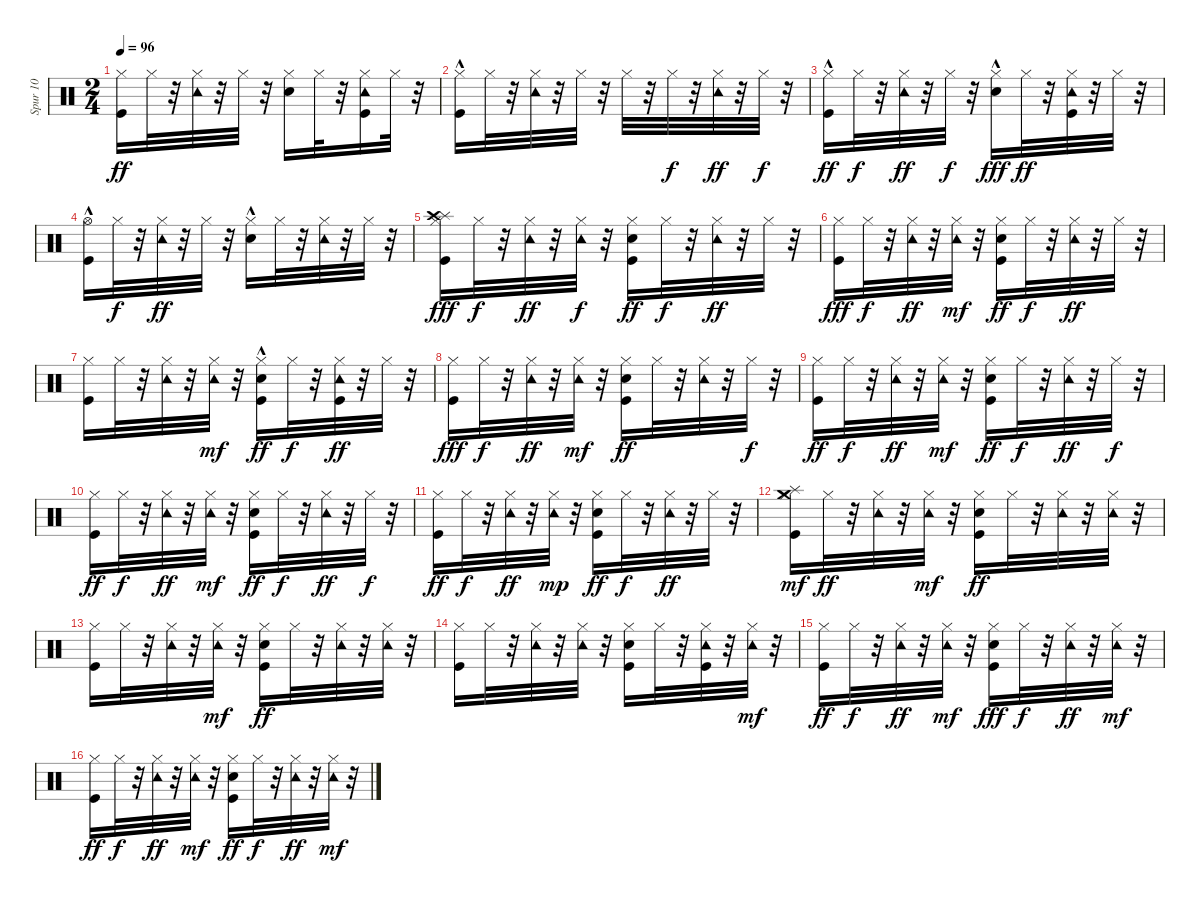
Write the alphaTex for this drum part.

\track ("Spur 10" "Spur 10") {instrument percussion}
\staff {score}
\articulation defaults
\ts (2 4)
\tempo 96
\clef neutral
\ks c
("Kick (hit)" "Hi-Hat (closed)").16{dy ff} "Hi-Hat (closed)".32 r.32 ("Hi-Hat (closed)" "Tambourine (hit)").32 r.32 "Hi-Hat (closed)".32 r.32 ("Snare (hit) 2" "Hi-Hat (closed)").16 "Hi-Hat (closed)".32 r.32 ("Kick (hit)" "Hi-Hat (closed)" "Tambourine (hit)").16 "Hi-Hat (closed)".32 r.32 |
("Kick (hit)"{hac} "Hi-Hat (closed)").16 "Hi-Hat (closed)".32 r.32 ("Hi-Hat (closed)" "Tambourine (hit)").32 r.32 "Hi-Hat (closed)".32 r.32 "Hi-Hat (closed)".32 r.32 "Hi-Hat (closed)".32{dy f} r.32 ("Hi-Hat (closed)" "Tambourine (hit)").32{dy ff} r.32 "Hi-Hat (closed)".32{dy f} r.32 |
("Kick (hit)"{hac} "Hi-Hat (closed)").16{dy ff} "Hi-Hat (closed)".32{dy f} r.32 ("Hi-Hat (closed)" "Tambourine (hit)").32{dy ff} r.32 "Hi-Hat (closed)".32{dy f} r.32 ("Snare (hit) 2"{hac} "Hi-Hat (closed)").16{dy fff} "Hi-Hat (closed)".32{dy ff} r.32 ("Kick (hit)" "Hi-Hat (closed)" "Tambourine (hit)").32 r.32 "Hi-Hat (closed)".32 r.32 |
("Kick (hit)"{hac} "Hi-Hat (open)").16 "Hi-Hat (closed)".32{dy f} r.32 ("Hi-Hat (closed)" "Tambourine (hit)").32{dy ff} r.32 "Hi-Hat (closed)".32 r.32 ("Snare (hit) 2"{hac} "Hi-Hat (closed)").16 "Hi-Hat (closed)".32 r.32 ("Hi-Hat (closed)" "Tambourine (hit)").32 r.32 "Hi-Hat (closed)".32 r.32 |
("Kick (hit)" "Hi-Hat (closed)" "Splash (hit)" "Crash high (hit)").16{dy fff} "Hi-Hat (closed)".32{dy f} r.32 ("Hi-Hat (closed)" "Tambourine (hit)").32{dy ff} r.32 ("Hi-Hat (closed)" "Tambourine (hit)").32{dy f} r.32 ("Kick (hit)" "Snare (hit) 2" "Hi-Hat (closed)").16{dy ff} "Hi-Hat (closed)".32{dy f} r.32 ("Hi-Hat (closed)" "Tambourine (hit)").32{dy ff} r.32 "Hi-Hat (closed)".32 r.32 |
("Kick (hit)" "Hi-Hat (closed)").16{dy fff} "Hi-Hat (closed)".32{dy f} r.32 ("Hi-Hat (closed)" "Tambourine (hit)").32{dy ff} r.32 ("Hi-Hat (closed)" "Tambourine (hit)").32{dy mf} r.32 ("Snare (hit) 2" "Kick (hit)" "Hi-Hat (closed)").16{dy ff} "Hi-Hat (closed)".32{dy f} r.32 ("Hi-Hat (closed)" "Tambourine (hit)").32{dy ff} r.32 "Hi-Hat (closed)".32 r.32 |
("Kick (hit)" "Hi-Hat (closed)").16 "Hi-Hat (closed)".32 r.32 ("Hi-Hat (closed)" "Tambourine (hit)").32 r.32 ("Hi-Hat (closed)" "Tambourine (hit)").32{dy mf} r.32 ("Snare (hit) 2"{hac} "Kick (hit)" "Hi-Hat (closed)").16{dy ff} "Hi-Hat (closed)".32{dy f} r.32 ("Kick (hit)" "Hi-Hat (closed)" "Tambourine (hit)").32{dy ff} r.32 "Hi-Hat (closed)".32 r.32 |
("Kick (hit)" "Hi-Hat (closed)").16{dy fff} "Hi-Hat (closed)".32{dy f} r.32 ("Hi-Hat (closed)" "Tambourine (hit)").32{dy ff} r.32 ("Hi-Hat (closed)" "Tambourine (hit)").32{dy mf} r.32 ("Kick (hit)" "Snare (hit) 2" "Hi-Hat (closed)").16{dy ff} "Hi-Hat (closed)".32 r.32 ("Hi-Hat (closed)" "Tambourine (hit)").32 r.32 "Hi-Hat (closed)".32{dy f} r.32 |
("Kick (hit)" "Hi-Hat (closed)").16{dy ff} "Hi-Hat (closed)".32{dy f} r.32 ("Hi-Hat (closed)" "Tambourine (hit)").32{dy ff} r.32 ("Hi-Hat (closed)" "Tambourine (hit)").32{dy mf} r.32 ("Kick (hit)" "Snare (hit) 2" "Hi-Hat (closed)").16{dy ff} "Hi-Hat (closed)".32{dy f} r.32 ("Hi-Hat (closed)" "Tambourine (hit)").32{dy ff} r.32 "Hi-Hat (closed)".32{dy f} r.32 |
("Kick (hit)" "Hi-Hat (closed)").16{dy ff} "Hi-Hat (closed)".32{dy f} r.32 ("Hi-Hat (closed)" "Tambourine (hit)").32{dy ff} r.32 ("Hi-Hat (closed)" "Tambourine (hit)").32{dy mf} r.32 ("Snare (hit) 2" "Kick (hit)" "Hi-Hat (closed)").16{dy ff} "Hi-Hat (closed)".32{dy f} r.32 ("Hi-Hat (closed)" "Tambourine (hit)").32{dy ff} r.32 "Hi-Hat (closed)".32{dy f} r.32 |
("Kick (hit)" "Hi-Hat (closed)").16{dy ff} "Hi-Hat (closed)".32{dy f} r.32 ("Hi-Hat (closed)" "Tambourine (hit)").32{dy ff} r.32 ("Hi-Hat (closed)" "Tambourine (hit)").32{dy mp} r.32 ("Snare (hit) 2" "Kick (hit)" "Hi-Hat (closed)").16{dy ff} "Hi-Hat (closed)".32{dy f} r.32 ("Hi-Hat (closed)" "Tambourine (hit)").32{dy ff} r.32 "Hi-Hat (closed)".32 r.32 |
("Kick (hit)" "Hi-Hat (closed)" "Splash (hit)" "Crash medium (hit)").16{dy mf} "Hi-Hat (closed)".32{dy ff} r.32 ("Hi-Hat (closed)" "Tambourine (hit)").32 r.32 ("Hi-Hat (closed)" "Tambourine (hit)").32{dy mf} r.32 ("Snare (hit) 2" "Kick (hit)" "Hi-Hat (closed)").16{dy ff} "Hi-Hat (closed)".32 r.32 ("Hi-Hat (closed)" "Tambourine (hit)").32 r.32 ("Hi-Hat (closed)" "Tambourine (hit)").32 r.32 |
("Kick (hit)" "Hi-Hat (closed)").16 "Hi-Hat (closed)".32 r.32 ("Hi-Hat (closed)" "Tambourine (hit)").32 r.32 ("Hi-Hat (closed)" "Tambourine (hit)").32{dy mf} r.32 ("Snare (hit) 2" "Kick (hit)" "Hi-Hat (closed)").16{dy ff} "Hi-Hat (closed)".32 r.32 ("Hi-Hat (closed)" "Tambourine (hit)").32 r.32 ("Hi-Hat (closed)" "Tambourine (hit)").32 r.32 |
("Kick (hit)" "Hi-Hat (closed)").16 "Hi-Hat (closed)".32 r.32 ("Hi-Hat (closed)" "Tambourine (hit)").32 r.32 ("Hi-Hat (closed)" "Tambourine (hit)").32 r.32 ("Snare (hit) 2" "Kick (hit)" "Hi-Hat (closed)").16 "Hi-Hat (closed)".32 r.32 ("Kick (hit)" "Hi-Hat (closed)" "Tambourine (hit)").32 r.32 ("Hi-Hat (closed)" "Tambourine (hit)").32{dy mf} r.32 |
("Kick (hit)" "Hi-Hat (closed)").16{dy ff} "Hi-Hat (closed)".32{dy f} r.32 ("Hi-Hat (closed)" "Tambourine (hit)").32{dy ff} r.32 ("Hi-Hat (closed)" "Tambourine (hit)").32{dy mf} r.32 ("Snare (hit) 2" "Kick (hit)" "Hi-Hat (closed)").16{dy fff} "Hi-Hat (closed)".32{dy f} r.32 ("Hi-Hat (closed)" "Tambourine (hit)").32{dy ff} r.32 ("Hi-Hat (closed)" "Tambourine (hit)").32{dy mf} r.32 |
("Kick (hit)" "Hi-Hat (closed)").16{dy ff} "Hi-Hat (closed)".32{dy f} r.32 ("Hi-Hat (closed)" "Tambourine (hit)").32{dy ff} r.32 ("Hi-Hat (closed)" "Tambourine (hit)").32{dy mf} r.32 ("Snare (hit) 2" "Kick (hit)" "Hi-Hat (closed)").16{dy ff} "Hi-Hat (closed)".32{dy f} r.32 ("Hi-Hat (closed)" "Tambourine (hit)").32{dy ff} r.32 ("Hi-Hat (closed)" "Tambourine (hit)").32{dy mf} r.32
